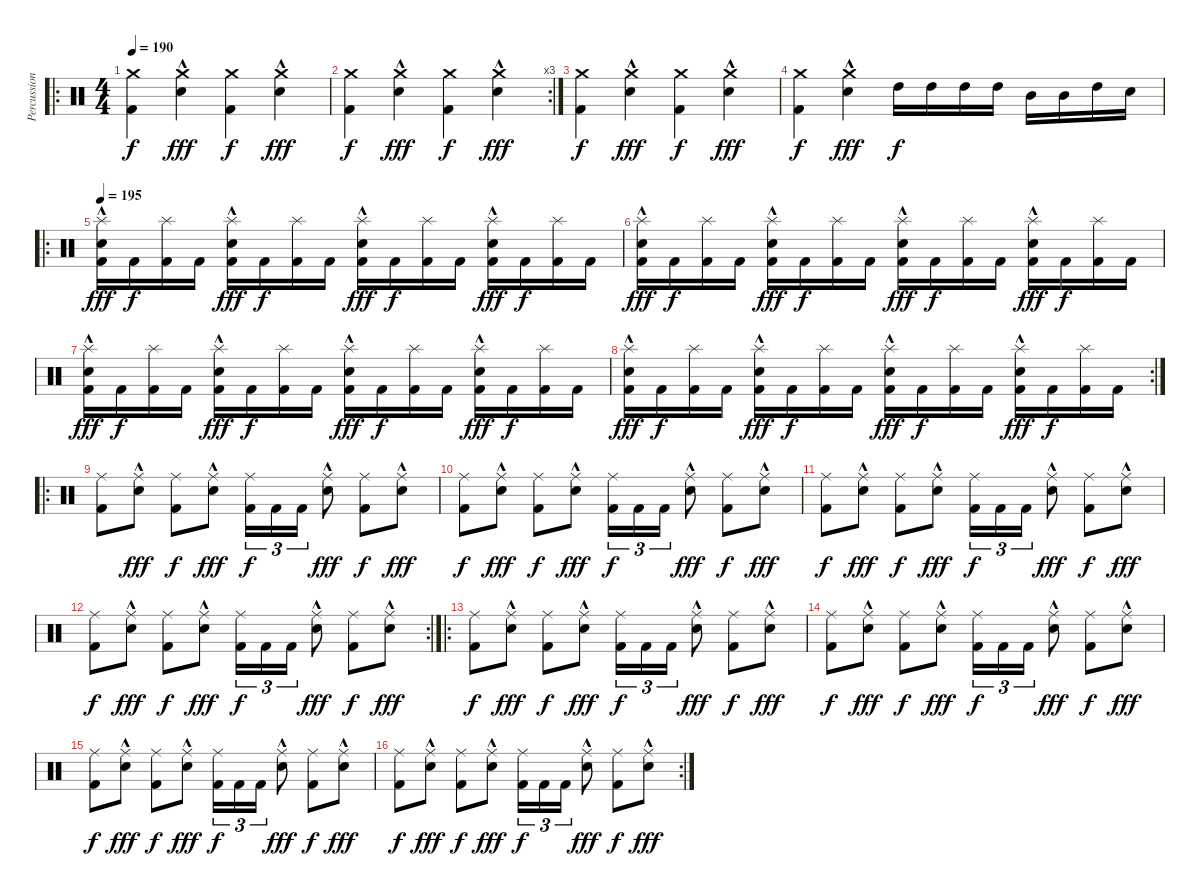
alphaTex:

\track ("Percussion" "Percussion") {instrument percussion}
\staff {score}
\articulation defaults
\ro
\ts (4 4)
\tempo 190
\clef neutral
\ks c
("Crash medium (hit)" "Kick (hit) 2").4{dy f} ("Crash medium (hit)" "Snare (hit) 2"{hac}).4{dy fff} ("Crash medium (hit)" "Kick (hit) 2").4{dy f} ("Crash medium (hit)" "Snare (hit) 2"{hac}).4{dy fff} |
\rc 3
("Crash medium (hit)" "Kick (hit) 2").4{dy f} ("Crash medium (hit)" "Snare (hit) 2"{hac}).4{dy fff} ("Crash medium (hit)" "Kick (hit) 2").4{dy f} ("Crash medium (hit)" "Snare (hit) 2"{hac}).4{dy fff} |
("Crash medium (hit)" "Kick (hit) 2").4{dy f} ("Crash medium (hit)" "Snare (hit) 2"{hac}).4{dy fff} ("Crash medium (hit)" "Kick (hit) 2").4{dy f} ("Crash medium (hit)" "Snare (hit) 2"{hac}).4{dy fff} |
("Crash medium (hit)" "Kick (hit) 2").4{dy f} ("Crash medium (hit)" "Snare (hit) 2"{hac}).4{dy fff} "High Tom (hit)".16{dy f} "High Tom (hit)".16 "High Tom (hit)".16 "High Tom (hit)".16 "Mid Tom (hit)".16 "Mid Tom (hit)".16 "High Tom (hit)".16 "Snare (hit) 2".16 |
\ro
\tempo 195
("Splash (hit)" "Snare (hit) 2"{hac} "Kick (hit) 2").16{dy fff} "Kick (hit) 2".16{dy f} ("Splash (hit)" "Kick (hit) 2").16 "Kick (hit) 2".16 ("Splash (hit)" "Snare (hit) 2"{hac} "Kick (hit) 2").16{dy fff} "Kick (hit) 2".16{dy f} ("Splash (hit)" "Kick (hit) 2").16 "Kick (hit) 2".16 ("Splash (hit)" "Snare (hit) 2"{hac} "Kick (hit) 2").16{dy fff} "Kick (hit) 2".16{dy f} ("Splash (hit)" "Kick (hit) 2").16 "Kick (hit) 2".16 ("Splash (hit)" "Snare (hit) 2"{hac} "Kick (hit) 2").16{dy fff} "Kick (hit) 2".16{dy f} ("Splash (hit)" "Kick (hit) 2").16 "Kick (hit) 2".16 |
("Splash (hit)" "Snare (hit) 2"{hac} "Kick (hit) 2").16{dy fff} "Kick (hit) 2".16{dy f} ("Splash (hit)" "Kick (hit) 2").16 "Kick (hit) 2".16 ("Splash (hit)" "Snare (hit) 2"{hac} "Kick (hit) 2").16{dy fff} "Kick (hit) 2".16{dy f} ("Splash (hit)" "Kick (hit) 2").16 "Kick (hit) 2".16 ("Splash (hit)" "Snare (hit) 2"{hac} "Kick (hit) 2").16{dy fff} "Kick (hit) 2".16{dy f} ("Splash (hit)" "Kick (hit) 2").16 "Kick (hit) 2".16 ("Splash (hit)" "Snare (hit) 2"{hac} "Kick (hit) 2").16{dy fff} "Kick (hit) 2".16{dy f} ("Splash (hit)" "Kick (hit) 2").16 "Kick (hit) 2".16 |
("Splash (hit)" "Snare (hit) 2"{hac} "Kick (hit) 2").16{dy fff} "Kick (hit) 2".16{dy f} ("Splash (hit)" "Kick (hit) 2").16 "Kick (hit) 2".16 ("Splash (hit)" "Snare (hit) 2"{hac} "Kick (hit) 2").16{dy fff} "Kick (hit) 2".16{dy f} ("Splash (hit)" "Kick (hit) 2").16 "Kick (hit) 2".16 ("Splash (hit)" "Snare (hit) 2"{hac} "Kick (hit) 2").16{dy fff} "Kick (hit) 2".16{dy f} ("Splash (hit)" "Kick (hit) 2").16 "Kick (hit) 2".16 ("Splash (hit)" "Snare (hit) 2"{hac} "Kick (hit) 2").16{dy fff} "Kick (hit) 2".16{dy f} ("Splash (hit)" "Kick (hit) 2").16 "Kick (hit) 2".16 |
\rc 2
("Splash (hit)" "Snare (hit) 2"{hac} "Kick (hit) 2").16{dy fff} "Kick (hit) 2".16{dy f} ("Splash (hit)" "Kick (hit) 2").16 "Kick (hit) 2".16 ("Splash (hit)" "Snare (hit) 2"{hac} "Kick (hit) 2").16{dy fff} "Kick (hit) 2".16{dy f} ("Splash (hit)" "Kick (hit) 2").16 "Kick (hit) 2".16 ("Splash (hit)" "Snare (hit) 2"{hac} "Kick (hit) 2").16{dy fff} "Kick (hit) 2".16{dy f} ("Splash (hit)" "Kick (hit) 2").16 "Kick (hit) 2".16 ("Splash (hit)" "Snare (hit) 2"{hac} "Kick (hit) 2").16{dy fff} "Kick (hit) 2".16{dy f} ("Splash (hit)" "Kick (hit) 2").16 "Kick (hit) 2".16 |
\ro
("Ride (middle)" "Kick (hit) 2").8 ("Ride (middle)" "Snare (hit) 2"{hac}).8{dy fff} ("Ride (middle)" "Kick (hit) 2").8{dy f} ("Ride (middle)" "Snare (hit) 2"{hac}).8{dy fff} ("Ride (middle)" "Kick (hit) 2").16{tu (3 2) dy f} "Kick (hit) 2".16{tu (3 2)} "Kick (hit) 2".16{tu (3 2)} ("Ride (middle)" "Snare (hit) 2"{hac}).8{dy fff} ("Ride (middle)" "Kick (hit) 2").8{dy f} ("Ride (middle)" "Snare (hit) 2"{hac}).8{dy fff} |
("Ride (middle)" "Kick (hit) 2").8{dy f} ("Ride (middle)" "Snare (hit) 2"{hac}).8{dy fff} ("Ride (middle)" "Kick (hit) 2").8{dy f} ("Ride (middle)" "Snare (hit) 2"{hac}).8{dy fff} ("Ride (middle)" "Kick (hit) 2").16{tu (3 2) dy f} "Kick (hit) 2".16{tu (3 2)} "Kick (hit) 2".16{tu (3 2)} ("Ride (middle)" "Snare (hit) 2"{hac}).8{dy fff} ("Ride (middle)" "Kick (hit) 2").8{dy f} ("Ride (middle)" "Snare (hit) 2"{hac}).8{dy fff} |
("Ride (middle)" "Kick (hit) 2").8{dy f} ("Ride (middle)" "Snare (hit) 2"{hac}).8{dy fff} ("Ride (middle)" "Kick (hit) 2").8{dy f} ("Ride (middle)" "Snare (hit) 2"{hac}).8{dy fff} ("Ride (middle)" "Kick (hit) 2").16{tu (3 2) dy f} "Kick (hit) 2".16{tu (3 2)} "Kick (hit) 2".16{tu (3 2)} ("Ride (middle)" "Snare (hit) 2"{hac}).8{dy fff} ("Ride (middle)" "Kick (hit) 2").8{dy f} ("Ride (middle)" "Snare (hit) 2"{hac}).8{dy fff} |
\rc 2
("Ride (middle)" "Kick (hit) 2").8{dy f} ("Ride (middle)" "Snare (hit) 2"{hac}).8{dy fff} ("Ride (middle)" "Kick (hit) 2").8{dy f} ("Ride (middle)" "Snare (hit) 2"{hac}).8{dy fff} ("Ride (middle)" "Kick (hit) 2").16{tu (3 2) dy f} "Kick (hit) 2".16{tu (3 2)} "Kick (hit) 2".16{tu (3 2)} ("Ride (middle)" "Snare (hit) 2"{hac}).8{dy fff} ("Ride (middle)" "Kick (hit) 2").8{dy f} ("Ride (middle)" "Snare (hit) 2"{hac}).8{dy fff} |
\ro
("Ride (middle)" "Kick (hit) 2").8{dy f} ("Ride (middle)" "Snare (hit) 2"{hac}).8{dy fff} ("Ride (middle)" "Kick (hit) 2").8{dy f} ("Ride (middle)" "Snare (hit) 2"{hac}).8{dy fff} ("Ride (middle)" "Kick (hit) 2").16{tu (3 2) dy f} "Kick (hit) 2".16{tu (3 2)} "Kick (hit) 2".16{tu (3 2)} ("Ride (middle)" "Snare (hit) 2"{hac}).8{dy fff} ("Ride (middle)" "Kick (hit) 2").8{dy f} ("Ride (middle)" "Snare (hit) 2"{hac}).8{dy fff} |
("Ride (middle)" "Kick (hit) 2").8{dy f} ("Ride (middle)" "Snare (hit) 2"{hac}).8{dy fff} ("Ride (middle)" "Kick (hit) 2").8{dy f} ("Ride (middle)" "Snare (hit) 2"{hac}).8{dy fff} ("Ride (middle)" "Kick (hit) 2").16{tu (3 2) dy f} "Kick (hit) 2".16{tu (3 2)} "Kick (hit) 2".16{tu (3 2)} ("Ride (middle)" "Snare (hit) 2"{hac}).8{dy fff} ("Ride (middle)" "Kick (hit) 2").8{dy f} ("Ride (middle)" "Snare (hit) 2"{hac}).8{dy fff} |
("Ride (middle)" "Kick (hit) 2").8{dy f} ("Ride (middle)" "Snare (hit) 2"{hac}).8{dy fff} ("Ride (middle)" "Kick (hit) 2").8{dy f} ("Ride (middle)" "Snare (hit) 2"{hac}).8{dy fff} ("Ride (middle)" "Kick (hit) 2").16{tu (3 2) dy f} "Kick (hit) 2".16{tu (3 2)} "Kick (hit) 2".16{tu (3 2)} ("Ride (middle)" "Snare (hit) 2"{hac}).8{dy fff} ("Ride (middle)" "Kick (hit) 2").8{dy f} ("Ride (middle)" "Snare (hit) 2"{hac}).8{dy fff} |
\rc 2
("Ride (middle)" "Kick (hit) 2").8{dy f} ("Ride (middle)" "Snare (hit) 2"{hac}).8{dy fff} ("Ride (middle)" "Kick (hit) 2").8{dy f} ("Ride (middle)" "Snare (hit) 2"{hac}).8{dy fff} ("Ride (middle)" "Kick (hit) 2").16{tu (3 2) dy f} "Kick (hit) 2".16{tu (3 2)} "Kick (hit) 2".16{tu (3 2)} ("Ride (middle)" "Snare (hit) 2"{hac}).8{dy fff} ("Ride (middle)" "Kick (hit) 2").8{dy f} ("Ride (middle)" "Snare (hit) 2"{hac}).8{dy fff}
